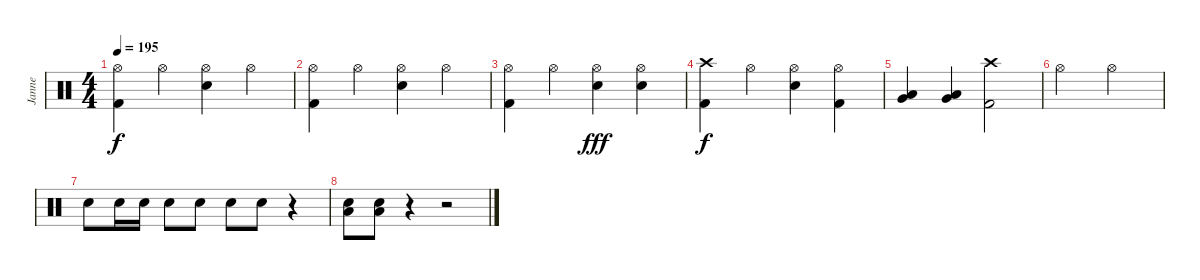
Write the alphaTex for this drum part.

\track ("Janne" "Janne") {instrument percussion}
\staff {score}
\articulation defaults
\ts (4 4)
\tempo 195
\clef neutral
\ks c
("Hi-Hat (open)" "Kick (hit) 2").4{dy f} "Hi-Hat (open)".4 ("Hi-Hat (open)" "Electric Snare (hit)").4 "Hi-Hat (open)".4 |
("Hi-Hat (open)" "Kick (hit) 2").4 "Hi-Hat (open)".4 ("Hi-Hat (open)" "Electric Snare (hit)").4 "Hi-Hat (open)".4 |
("Hi-Hat (open)" "Kick (hit) 2").4 "Hi-Hat (open)".4 ("Hi-Hat (open)" "Electric Snare (hit)").4{dy fff} ("Hi-Hat (open)" "Electric Snare (hit)").4 |
("Crash high (hit)" "Kick (hit) 2").4{dy f} "Hi-Hat (open)".4 ("Hi-Hat (open)" "Electric Snare (hit)").4 ("Hi-Hat (open)" "Kick (hit) 2").4 |
("Low Floor Tom (hit)" "Very Low Tom (hit)").4 ("Low Floor Tom (hit)" "Very Low Tom (hit)").4 ("Crash high (hit)" "Kick (hit) 2").2 |
"Hi-Hat (open)".2 "Hi-Hat (open)".2 |
"Electric Snare (hit)".8 "Electric Snare (hit)".16 "Electric Snare (hit)".16 "Electric Snare (hit)".8 "Electric Snare (hit)".8 "Electric Snare (hit)".8 "Electric Snare (hit)".8 r.4 |
("Low Floor Tom (hit)" "Electric Snare (hit)").8 ("Low Floor Tom (hit)" "Electric Snare (hit)").8 r.4 r.2
